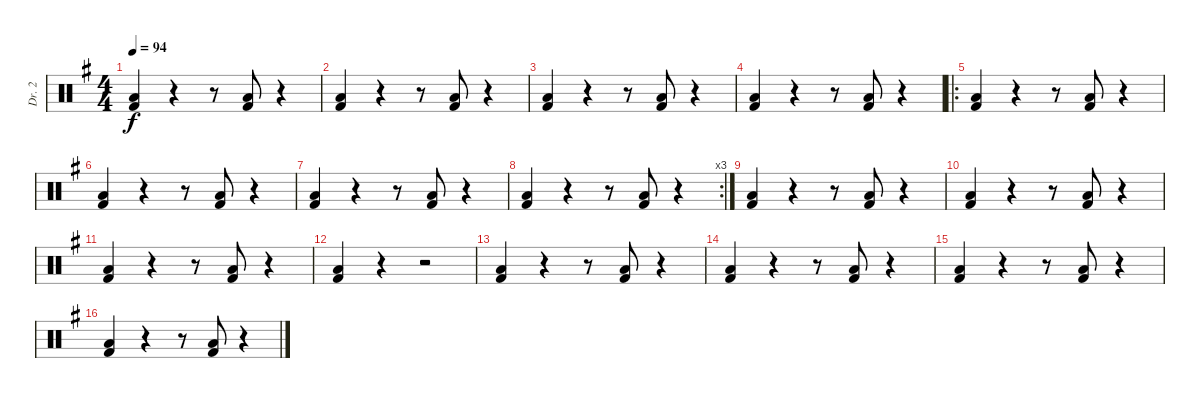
\track ("Dr. 2" "Dr. 2") {instrument percussion}
\staff {score}
\articulation defaults
\ts (4 4)
\tempo 94
\clef neutral
\ks g
("Low Floor Tom (hit)" "Kick (hit) 2").4{dy f} r.4 r.8 ("Low Floor Tom (hit)" "Kick (hit) 2").8 r.4 |
("Low Floor Tom (hit)" "Kick (hit) 2").4 r.4 r.8 ("Low Floor Tom (hit)" "Kick (hit) 2").8 r.4 |
("Low Floor Tom (hit)" "Kick (hit) 2").4 r.4 r.8 ("Low Floor Tom (hit)" "Kick (hit) 2").8 r.4 |
("Low Floor Tom (hit)" "Kick (hit) 2").4 r.4 r.8 ("Low Floor Tom (hit)" "Kick (hit) 2").8 r.4 |
\ro
("Low Floor Tom (hit)" "Kick (hit) 2").4 r.4 r.8 ("Low Floor Tom (hit)" "Kick (hit) 2").8 r.4 |
("Low Floor Tom (hit)" "Kick (hit) 2").4 r.4 r.8 ("Low Floor Tom (hit)" "Kick (hit) 2").8 r.4 |
("Low Floor Tom (hit)" "Kick (hit) 2").4 r.4 r.8 ("Low Floor Tom (hit)" "Kick (hit) 2").8 r.4 |
\rc 3
("Low Floor Tom (hit)" "Kick (hit) 2").4 r.4 r.8 ("Low Floor Tom (hit)" "Kick (hit) 2").8 r.4 |
("Low Floor Tom (hit)" "Kick (hit) 2").4 r.4 r.8 ("Low Floor Tom (hit)" "Kick (hit) 2").8 r.4 |
("Low Floor Tom (hit)" "Kick (hit) 2").4 r.4 r.8 ("Low Floor Tom (hit)" "Kick (hit) 2").8 r.4 |
("Low Floor Tom (hit)" "Kick (hit) 2").4 r.4 r.8 ("Low Floor Tom (hit)" "Kick (hit) 2").8 r.4 |
("Low Floor Tom (hit)" "Kick (hit) 2").4 r.4 r.2 |
("Low Floor Tom (hit)" "Kick (hit) 2").4 r.4 r.8 ("Low Floor Tom (hit)" "Kick (hit) 2").8 r.4 |
("Low Floor Tom (hit)" "Kick (hit) 2").4 r.4 r.8 ("Low Floor Tom (hit)" "Kick (hit) 2").8 r.4 |
("Low Floor Tom (hit)" "Kick (hit) 2").4 r.4 r.8 ("Low Floor Tom (hit)" "Kick (hit) 2").8 r.4 |
("Low Floor Tom (hit)" "Kick (hit) 2").4 r.4 r.8 ("Low Floor Tom (hit)" "Kick (hit) 2").8 r.4
